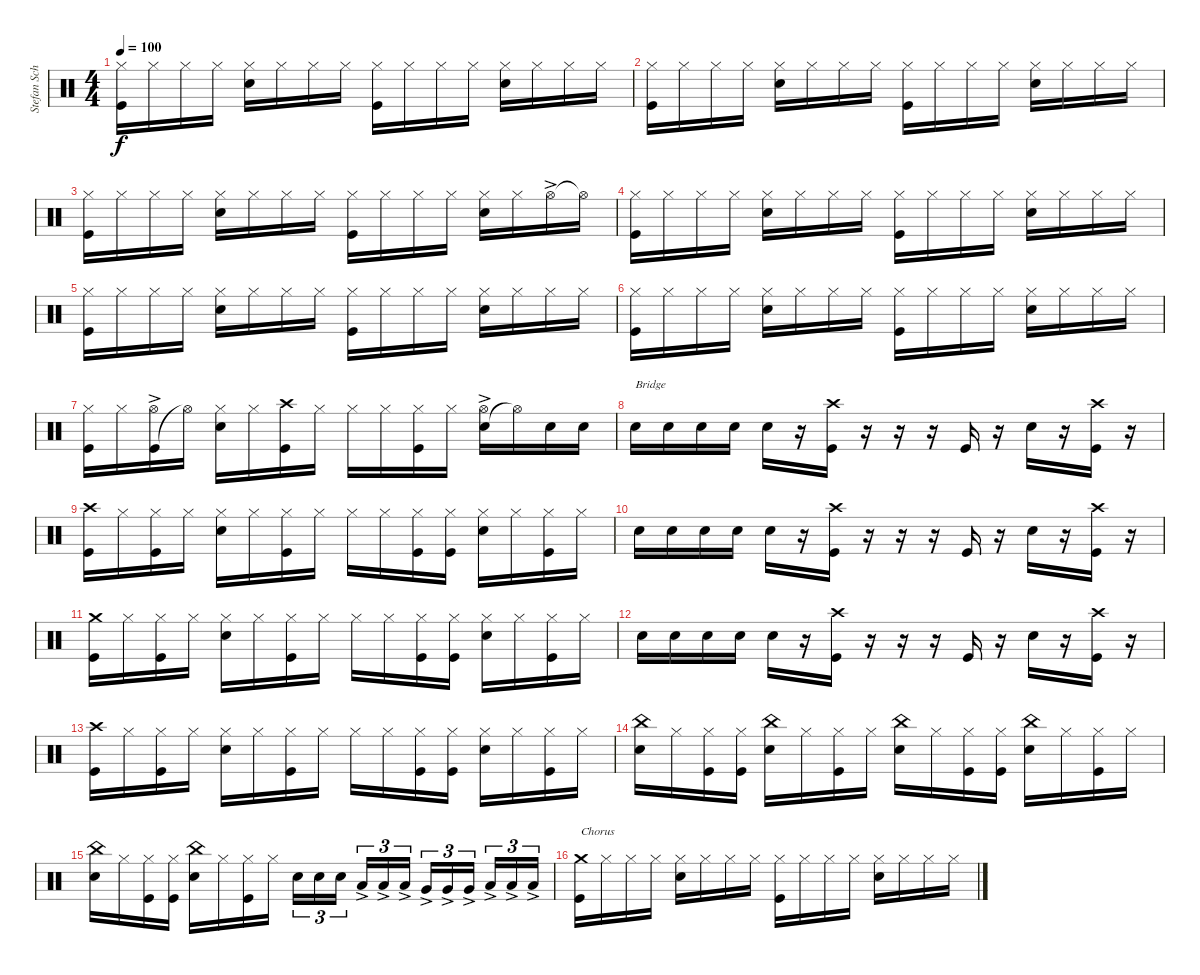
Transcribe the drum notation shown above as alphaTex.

\track ("Stefan Schwarzmann" "Stefan Sch") {instrument percussion}
\staff {score}
\articulation defaults
\ts (4 4)
\tempo 100
\clef neutral
\ks c
("Kick (hit)" "Hi-Hat (closed)").16{dy f} "Hi-Hat (closed)".16 "Hi-Hat (closed)".16 "Hi-Hat (closed)".16 ("Snare (hit) 2" "Hi-Hat (closed)").16 "Hi-Hat (closed)".16 "Hi-Hat (closed)".16 "Hi-Hat (closed)".16 ("Kick (hit)" "Hi-Hat (closed)").16 "Hi-Hat (closed)".16 "Hi-Hat (closed)".16 "Hi-Hat (closed)".16 ("Snare (hit) 2" "Hi-Hat (closed)").16 "Hi-Hat (closed)".16 "Hi-Hat (closed)".16 "Hi-Hat (closed)".16 |
("Kick (hit)" "Hi-Hat (closed)").16 "Hi-Hat (closed)".16 "Hi-Hat (closed)".16 "Hi-Hat (closed)".16 ("Snare (hit) 2" "Hi-Hat (closed)").16 "Hi-Hat (closed)".16 "Hi-Hat (closed)".16 "Hi-Hat (closed)".16 ("Kick (hit)" "Hi-Hat (closed)").16 "Hi-Hat (closed)".16 "Hi-Hat (closed)".16 "Hi-Hat (closed)".16 ("Snare (hit) 2" "Hi-Hat (closed)").16 "Hi-Hat (closed)".16 "Hi-Hat (closed)".16 "Hi-Hat (closed)".16 |
("Kick (hit)" "Hi-Hat (closed)").16 "Hi-Hat (closed)".16 "Hi-Hat (closed)".16 "Hi-Hat (closed)".16 ("Snare (hit) 2" "Hi-Hat (closed)").16 "Hi-Hat (closed)".16 "Hi-Hat (closed)".16 "Hi-Hat (closed)".16 ("Kick (hit)" "Hi-Hat (closed)").16 "Hi-Hat (closed)".16 "Hi-Hat (closed)".16 "Hi-Hat (closed)".16 ("Snare (hit) 2" "Hi-Hat (closed)").16 "Hi-Hat (closed)".16 "Hi-Hat (open)"{ac}.16 "Hi-Hat (open)"{t}.16 |
("Kick (hit)" "Hi-Hat (closed)").16 "Hi-Hat (closed)".16 "Hi-Hat (closed)".16 "Hi-Hat (closed)".16 ("Snare (hit) 2" "Hi-Hat (closed)").16 "Hi-Hat (closed)".16 "Hi-Hat (closed)".16 "Hi-Hat (closed)".16 ("Kick (hit)" "Hi-Hat (closed)").16 "Hi-Hat (closed)".16 "Hi-Hat (closed)".16 "Hi-Hat (closed)".16 ("Snare (hit) 2" "Hi-Hat (closed)").16 "Hi-Hat (closed)".16 "Hi-Hat (closed)".16 "Hi-Hat (closed)".16 |
("Kick (hit)" "Hi-Hat (closed)").16 "Hi-Hat (closed)".16 "Hi-Hat (closed)".16 "Hi-Hat (closed)".16 ("Snare (hit) 2" "Hi-Hat (closed)").16 "Hi-Hat (closed)".16 "Hi-Hat (closed)".16 "Hi-Hat (closed)".16 ("Kick (hit)" "Hi-Hat (closed)").16 "Hi-Hat (closed)".16 "Hi-Hat (closed)".16 "Hi-Hat (closed)".16 ("Snare (hit) 2" "Hi-Hat (closed)").16 "Hi-Hat (closed)".16 "Hi-Hat (closed)".16 "Hi-Hat (closed)".16 |
("Kick (hit)" "Hi-Hat (closed)").16 "Hi-Hat (closed)".16 "Hi-Hat (closed)".16 "Hi-Hat (closed)".16 ("Snare (hit) 2" "Hi-Hat (closed)").16 "Hi-Hat (closed)".16 "Hi-Hat (closed)".16 "Hi-Hat (closed)".16 ("Kick (hit)" "Hi-Hat (closed)").16 "Hi-Hat (closed)".16 "Hi-Hat (closed)".16 "Hi-Hat (closed)".16 ("Snare (hit) 2" "Hi-Hat (closed)").16 "Hi-Hat (closed)".16 "Hi-Hat (closed)".16 "Hi-Hat (closed)".16 |
("Kick (hit)" "Hi-Hat (closed)").16 "Hi-Hat (closed)".16 ("Kick (hit)" "Hi-Hat (open)"{ac}).16 "Hi-Hat (open)"{t}.16 ("Snare (hit) 2" "Hi-Hat (closed)").16 "Hi-Hat (closed)".16 ("Kick (hit)" "Crash high (hit)").16 "Hi-Hat (closed)".16 "Hi-Hat (closed)".16 "Hi-Hat (closed)".16 ("Hi-Hat (closed)" "Kick (hit)").16 "Hi-Hat (closed)".16 ("Snare (hit) 2" "Hi-Hat (open)"{ac}).16 "Hi-Hat (open)"{t}.16 "Snare (hit) 2".16 "Snare (hit) 2".16 |
"Snare (hit) 2".16{txt "Bridge"} "Snare (hit) 2".16 "Snare (hit) 2".16 "Snare (hit) 2".16 "Snare (hit) 2".16 r.16 ("Kick (hit)" "Crash high (hit)").16 r.16 r.16 r.16 "Kick (hit)".16 r.16 "Snare (hit) 2".16 r.16 ("Kick (hit)" "Crash high (hit)").16 r.16 |
("Kick (hit)" "Crash high (hit)").16 "Hi-Hat (closed)".16 ("Hi-Hat (closed)" "Kick (hit)").16 "Hi-Hat (closed)".16 ("Snare (hit) 2" "Hi-Hat (closed)").16 "Hi-Hat (closed)".16 ("Hi-Hat (closed)" "Kick (hit)").16 "Hi-Hat (closed)".16 "Hi-Hat (closed)".16 "Hi-Hat (closed)".16 ("Hi-Hat (closed)" "Kick (hit)").16 ("Hi-Hat (closed)" "Kick (hit)").16 ("Snare (hit) 2" "Hi-Hat (closed)").16 "Hi-Hat (closed)".16 ("Hi-Hat (closed)" "Kick (hit)").16 "Hi-Hat (closed)".16 |
"Snare (hit) 2".16 "Snare (hit) 2".16 "Snare (hit) 2".16 "Snare (hit) 2".16 "Snare (hit) 2".16 r.16 ("Kick (hit)" "Crash high (hit)").16 r.16 r.16 r.16 "Kick (hit)".16 r.16 "Snare (hit) 2".16 r.16 ("Kick (hit)" "Crash high (hit)").16 r.16 |
("Kick (hit)" "Crash medium (hit)").16 "Hi-Hat (closed)".16 ("Hi-Hat (closed)" "Kick (hit)").16 "Hi-Hat (closed)".16 ("Snare (hit) 2" "Hi-Hat (closed)").16 "Hi-Hat (closed)".16 ("Hi-Hat (closed)" "Kick (hit)").16 "Hi-Hat (closed)".16 "Hi-Hat (closed)".16 "Hi-Hat (closed)".16 ("Hi-Hat (closed)" "Kick (hit)").16 ("Hi-Hat (closed)" "Kick (hit)").16 ("Snare (hit) 2" "Hi-Hat (closed)").16 "Hi-Hat (closed)".16 ("Hi-Hat (closed)" "Kick (hit)").16 "Hi-Hat (closed)".16 |
"Snare (hit) 2".16 "Snare (hit) 2".16 "Snare (hit) 2".16 "Snare (hit) 2".16 "Snare (hit) 2".16 r.16 ("Kick (hit)" "Crash high (hit)").16 r.16 r.16 r.16 "Kick (hit)".16 r.16 "Snare (hit) 2".16 r.16 ("Kick (hit)" "Crash high (hit)").16 r.16 |
("Kick (hit)" "Crash high (hit)").16 "Hi-Hat (closed)".16 ("Hi-Hat (closed)" "Kick (hit)").16 "Hi-Hat (closed)".16 ("Snare (hit) 2" "Hi-Hat (closed)").16 "Hi-Hat (closed)".16 ("Hi-Hat (closed)" "Kick (hit)").16 "Hi-Hat (closed)".16 "Hi-Hat (closed)".16 "Hi-Hat (closed)".16 ("Hi-Hat (closed)" "Kick (hit)").16 ("Hi-Hat (closed)" "Kick (hit)").16 ("Snare (hit) 2" "Hi-Hat (closed)").16 "Hi-Hat (closed)".16 ("Hi-Hat (closed)" "Kick (hit)").16 "Hi-Hat (closed)".16 |
("Snare (hit) 2" "China (hit)").16 "Hi-Hat (closed)".16 ("Hi-Hat (closed)" "Kick (hit)").16 ("Hi-Hat (closed)" "Kick (hit)").16 ("Snare (hit) 2" "China (hit)").16 "Hi-Hat (closed)".16 ("Hi-Hat (closed)" "Kick (hit)").16 "Hi-Hat (closed)".16 ("Snare (hit) 2" "China (hit)").16 "Hi-Hat (closed)".16 ("Hi-Hat (closed)" "Kick (hit)").16 ("Hi-Hat (closed)" "Kick (hit)").16 ("Snare (hit) 2" "China (hit)").16 "Hi-Hat (closed)".16 ("Hi-Hat (closed)" "Kick (hit)").16 "Hi-Hat (closed)".16 |
("Snare (hit) 2" "China (hit)").16 "Hi-Hat (closed)".16 ("Hi-Hat (closed)" "Kick (hit)").16 ("Hi-Hat (closed)" "Kick (hit)").16 ("Snare (hit) 2" "China (hit)").16 "Hi-Hat (closed)".16 ("Hi-Hat (closed)" "Kick (hit)").16 "Hi-Hat (closed)".16 "Snare (hit) 2".16{tu (3 2)} "Snare (hit) 2".16{tu (3 2)} "Snare (hit) 2".16{tu (3 2)} "Low Tom (hit)"{ac}.16{tu (3 2)} "Low Tom (hit)"{ac}.16{tu (3 2)} "Low Tom (hit)"{ac}.16{tu (3 2)} "Very Low Tom (hit)"{ac}.16{tu (3 2)} "Very Low Tom (hit)"{ac}.16{tu (3 2)} "Very Low Tom (hit)"{ac}.16{tu (3 2)} "Low Floor Tom (hit)"{ac}.16{tu (3 2)} "Low Floor Tom (hit)"{ac}.16{tu (3 2)} "Low Floor Tom (hit)"{ac}.16{tu (3 2)} |
("Kick (hit)" "Crash medium (hit)").16{txt "Chorus"} "Hi-Hat (closed)".16 "Hi-Hat (closed)".16 "Hi-Hat (closed)".16 ("Snare (hit) 2" "Hi-Hat (closed)").16 "Hi-Hat (closed)".16 "Hi-Hat (closed)".16 "Hi-Hat (closed)".16 ("Kick (hit)" "Hi-Hat (closed)").16 "Hi-Hat (closed)".16 "Hi-Hat (closed)".16 "Hi-Hat (closed)".16 ("Snare (hit) 2" "Hi-Hat (closed)").16 "Hi-Hat (closed)".16 "Hi-Hat (closed)".16 "Hi-Hat (closed)".16
